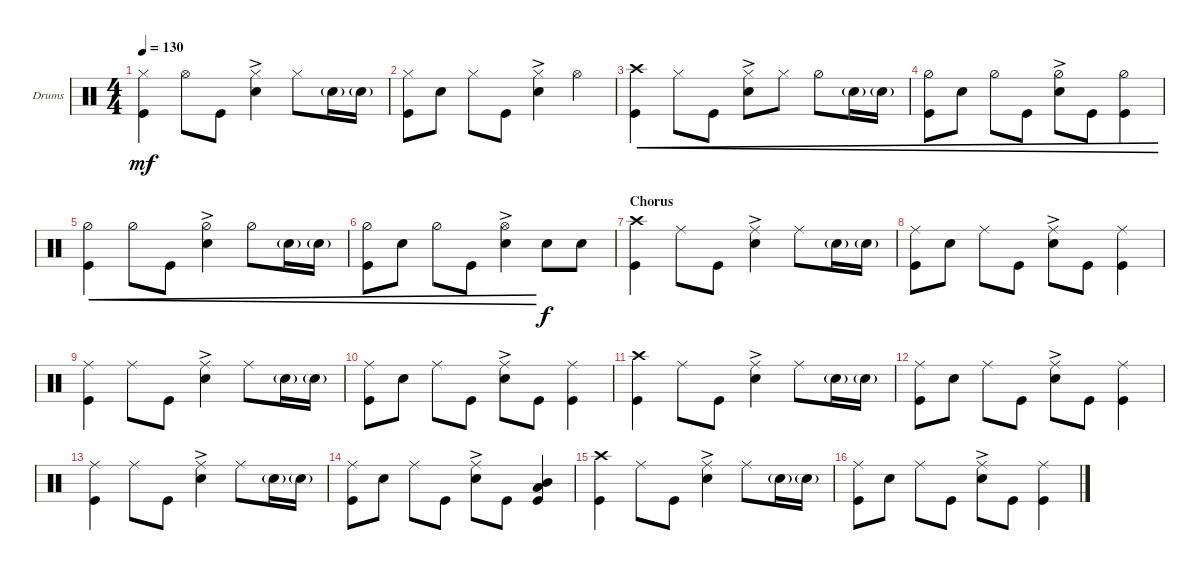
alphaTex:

\bracketExtendMode groupsimilarinstruments
\firstSystemTrackNameOrientation horizontal
\otherSystemsTrackNameOrientation horizontal
\track ("Drumkit" "Drums") {instrument percussion}
\staff {score}
\articulation defaults
\ts (4 4)
\tempo 130
\clef neutral
\ks c
("Hi-Hat (closed)" "Kick (hit)").4{dy mf} "Hi-Hat (open)".8 "Kick (hit)".8 ("Snare (hit) 2"{ac} "Hi-Hat (closed)").4 "Hi-Hat (closed)".8 "Snare (hit) 2"{g}.16 "Snare (hit) 2"{g}.16 |
("Kick (hit)" "Hi-Hat (closed)").8 "Snare (hit) 2".8 "Hi-Hat (closed)".8 "Kick (hit)".8 ("Snare (hit) 2"{ac} "Hi-Hat (closed)").4 "Hi-Hat (open)".4 |
("Kick (hit)" "Crash high (hit)").4{cre} "Hi-Hat (closed)".8{cre} "Kick (hit)".8{cre} ("Snare (hit) 2"{ac} "Hi-Hat (closed)").8{cre} "Hi-Hat (closed)".8{cre} "Hi-Hat (half)".8{cre} "Snare (hit) 2"{g}.16{cre} "Snare (hit) 2"{g}.16{cre} |
("Kick (hit)" "Hi-Hat (half)").8{cre} "Snare (hit) 2".8{cre} "Hi-Hat (half)".8{cre} "Kick (hit)".8{cre} ("Snare (hit) 2"{ac} "Hi-Hat (half)").8{cre} "Kick (hit)".8{cre} ("Hi-Hat (half)" "Kick (hit)").4{cre} |
("Hi-Hat (half)" "Kick (hit)").4{cre} "Hi-Hat (half)".8{cre} "Kick (hit)".8{cre} ("Snare (hit) 2"{ac} "Hi-Hat (half)").4{cre} "Hi-Hat (half)".8{cre} "Snare (hit) 2"{g}.16{cre} "Snare (hit) 2"{g}.16{cre} |
("Kick (hit)" "Hi-Hat (half)").8{cre} "Snare (hit) 2".8{cre} "Hi-Hat (half)".8{cre} "Kick (hit)".8{cre} ("Snare (hit) 2"{ac} "Hi-Hat (open)").4{cre} "Snare (hit) 2".8{dy f} "Snare (hit) 2".8 |
\section ("" "Chorus")
("Kick (hit)" "Crash high (hit)").4 "Ride (middle)".8 "Kick (hit)".8 ("Snare (hit) 2"{ac} "Ride (middle)").4 "Ride (middle)".8 "Snare (hit) 2"{g}.16 "Snare (hit) 2"{g}.16 |
("Kick (hit)" "Ride (middle)").8 "Snare (hit) 2".8 "Ride (middle)".8 "Kick (hit)".8 ("Snare (hit) 2"{ac} "Ride (middle)").8 "Kick (hit)".8 ("Kick (hit)" "Ride (middle)").4 |
("Kick (hit)" "Ride (middle)").4 "Ride (middle)".8 "Kick (hit)".8 ("Snare (hit) 2"{ac} "Ride (middle)").4 "Ride (middle)".8 "Snare (hit) 2"{g}.16 "Snare (hit) 2"{g}.16 |
("Kick (hit)" "Ride (middle)").8 "Snare (hit) 2".8 "Ride (middle)".8 "Kick (hit)".8 ("Snare (hit) 2"{ac} "Ride (middle)").8 "Kick (hit)".8 ("Kick (hit)" "Ride (middle)").4 |
("Kick (hit)" "Crash high (hit)").4 "Ride (middle)".8 "Kick (hit)".8 ("Snare (hit) 2"{ac} "Ride (middle)").4 "Ride (middle)".8 "Snare (hit) 2"{g}.16 "Snare (hit) 2"{g}.16 |
("Kick (hit)" "Ride (middle)").8 "Snare (hit) 2".8 "Ride (middle)".8 "Kick (hit)".8 ("Snare (hit) 2"{ac} "Ride (middle)").8 "Kick (hit)".8 ("Kick (hit)" "Ride (middle)").4 |
("Kick (hit)" "Ride (middle)").4 "Ride (middle)".8 "Kick (hit)".8 ("Snare (hit) 2"{ac} "Ride (middle)").4 "Ride (middle)".8 "Snare (hit) 2"{g}.16 "Snare (hit) 2"{g}.16 |
("Kick (hit)" "Ride (middle)").8 "Snare (hit) 2".8 "Ride (middle)".8 "Kick (hit)".8 ("Snare (hit) 2"{ac} "Ride (middle)").8 "Kick (hit)".8 ("Kick (hit)" "Mid Tom (hit)" "Low Tom (hit)").4 |
("Kick (hit)" "Crash high (hit)").4 "Ride (middle)".8 "Kick (hit)".8 ("Snare (hit) 2"{ac} "Ride (middle)").4 "Ride (middle)".8 "Snare (hit) 2"{g}.16 "Snare (hit) 2"{g}.16 |
("Kick (hit)" "Ride (middle)").8 "Snare (hit) 2".8 "Ride (middle)".8 "Kick (hit)".8 ("Snare (hit) 2"{ac} "Ride (middle)").8 "Kick (hit)".8 ("Kick (hit)" "Ride (middle)").4
